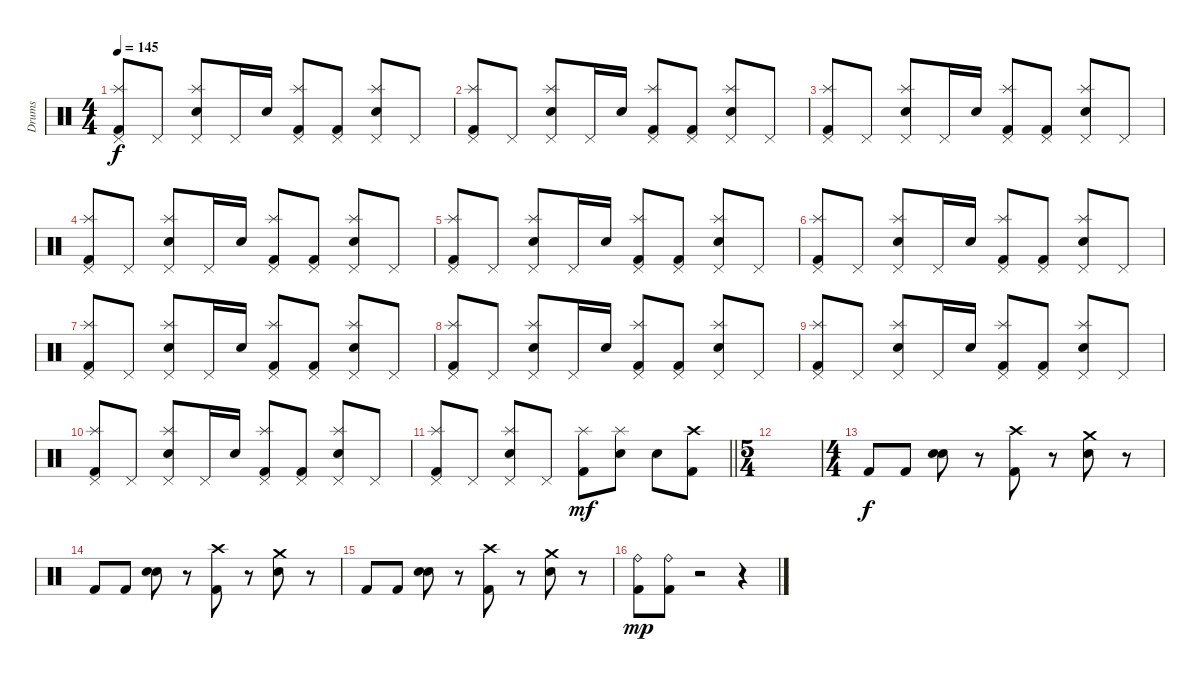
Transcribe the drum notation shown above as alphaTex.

\track ("Drums" "Drums") {instrument percussion}
\staff {score}
\articulation defaults
\ts (4 4)
\tempo 145
\clef neutral
\ks c
("Pedal Hi-Hat (hit)" "Splash (hit)" "Kick (hit) 2").8{dy f} "Pedal Hi-Hat (hit)".8 ("Pedal Hi-Hat (hit)" "Splash (hit)" "Electric Snare (hit)").8 "Pedal Hi-Hat (hit)".16 "Electric Snare (hit)".16 ("Pedal Hi-Hat (hit)" "Splash (hit)" "Kick (hit) 2").8 ("Pedal Hi-Hat (hit)" "Kick (hit) 2").8 ("Pedal Hi-Hat (hit)" "Splash (hit)" "Electric Snare (hit)").8 "Pedal Hi-Hat (hit)".8 |
("Pedal Hi-Hat (hit)" "Splash (hit)" "Kick (hit) 2").8 "Pedal Hi-Hat (hit)".8 ("Pedal Hi-Hat (hit)" "Splash (hit)" "Electric Snare (hit)").8 "Pedal Hi-Hat (hit)".16 "Electric Snare (hit)".16 ("Pedal Hi-Hat (hit)" "Splash (hit)" "Kick (hit) 2").8 ("Pedal Hi-Hat (hit)" "Kick (hit) 2").8 ("Pedal Hi-Hat (hit)" "Splash (hit)" "Electric Snare (hit)").8 "Pedal Hi-Hat (hit)".8 |
("Pedal Hi-Hat (hit)" "Splash (hit)" "Kick (hit) 2").8 "Pedal Hi-Hat (hit)".8 ("Pedal Hi-Hat (hit)" "Splash (hit)" "Electric Snare (hit)").8 "Pedal Hi-Hat (hit)".16 "Electric Snare (hit)".16 ("Pedal Hi-Hat (hit)" "Splash (hit)" "Kick (hit) 2").8 ("Pedal Hi-Hat (hit)" "Kick (hit) 2").8 ("Pedal Hi-Hat (hit)" "Splash (hit)" "Electric Snare (hit)").8 "Pedal Hi-Hat (hit)".8 |
("Pedal Hi-Hat (hit)" "Splash (hit)" "Kick (hit) 2").8 "Pedal Hi-Hat (hit)".8 ("Pedal Hi-Hat (hit)" "Splash (hit)" "Electric Snare (hit)").8 "Pedal Hi-Hat (hit)".16 "Electric Snare (hit)".16 ("Pedal Hi-Hat (hit)" "Splash (hit)" "Kick (hit) 2").8 ("Pedal Hi-Hat (hit)" "Kick (hit) 2").8 ("Pedal Hi-Hat (hit)" "Splash (hit)" "Electric Snare (hit)").8 "Pedal Hi-Hat (hit)".8 |
("Pedal Hi-Hat (hit)" "Splash (hit)" "Kick (hit) 2").8 "Pedal Hi-Hat (hit)".8 ("Pedal Hi-Hat (hit)" "Splash (hit)" "Electric Snare (hit)").8 "Pedal Hi-Hat (hit)".16 "Electric Snare (hit)".16 ("Pedal Hi-Hat (hit)" "Splash (hit)" "Kick (hit) 2").8 ("Pedal Hi-Hat (hit)" "Kick (hit) 2").8 ("Pedal Hi-Hat (hit)" "Splash (hit)" "Electric Snare (hit)").8 "Pedal Hi-Hat (hit)".8 |
("Pedal Hi-Hat (hit)" "Splash (hit)" "Kick (hit) 2").8 "Pedal Hi-Hat (hit)".8 ("Pedal Hi-Hat (hit)" "Splash (hit)" "Electric Snare (hit)").8 "Pedal Hi-Hat (hit)".16 "Electric Snare (hit)".16 ("Pedal Hi-Hat (hit)" "Splash (hit)" "Kick (hit) 2").8 ("Pedal Hi-Hat (hit)" "Kick (hit) 2").8 ("Pedal Hi-Hat (hit)" "Splash (hit)" "Electric Snare (hit)").8 "Pedal Hi-Hat (hit)".8 |
("Pedal Hi-Hat (hit)" "Splash (hit)" "Kick (hit) 2").8 "Pedal Hi-Hat (hit)".8 ("Pedal Hi-Hat (hit)" "Splash (hit)" "Electric Snare (hit)").8 "Pedal Hi-Hat (hit)".16 "Electric Snare (hit)".16 ("Pedal Hi-Hat (hit)" "Splash (hit)" "Kick (hit) 2").8 ("Pedal Hi-Hat (hit)" "Kick (hit) 2").8 ("Pedal Hi-Hat (hit)" "Splash (hit)" "Electric Snare (hit)").8 "Pedal Hi-Hat (hit)".8 |
("Pedal Hi-Hat (hit)" "Splash (hit)" "Kick (hit) 2").8 "Pedal Hi-Hat (hit)".8 ("Pedal Hi-Hat (hit)" "Splash (hit)" "Electric Snare (hit)").8 "Pedal Hi-Hat (hit)".16 "Electric Snare (hit)".16 ("Pedal Hi-Hat (hit)" "Splash (hit)" "Kick (hit) 2").8 ("Pedal Hi-Hat (hit)" "Kick (hit) 2").8 ("Pedal Hi-Hat (hit)" "Splash (hit)" "Electric Snare (hit)").8 "Pedal Hi-Hat (hit)".8 |
("Pedal Hi-Hat (hit)" "Splash (hit)" "Kick (hit) 2").8 "Pedal Hi-Hat (hit)".8 ("Pedal Hi-Hat (hit)" "Splash (hit)" "Electric Snare (hit)").8 "Pedal Hi-Hat (hit)".16 "Electric Snare (hit)".16 ("Pedal Hi-Hat (hit)" "Splash (hit)" "Kick (hit) 2").8 ("Pedal Hi-Hat (hit)" "Kick (hit) 2").8 ("Pedal Hi-Hat (hit)" "Splash (hit)" "Electric Snare (hit)").8 "Pedal Hi-Hat (hit)".8 |
("Pedal Hi-Hat (hit)" "Splash (hit)" "Kick (hit) 2").8 "Pedal Hi-Hat (hit)".8 ("Pedal Hi-Hat (hit)" "Splash (hit)" "Electric Snare (hit)").8 "Pedal Hi-Hat (hit)".16 "Electric Snare (hit)".16 ("Pedal Hi-Hat (hit)" "Splash (hit)" "Kick (hit) 2").8 ("Pedal Hi-Hat (hit)" "Kick (hit) 2").8 ("Pedal Hi-Hat (hit)" "Splash (hit)" "Electric Snare (hit)").8 "Pedal Hi-Hat (hit)".8 |
\barLineRight lightlight
("Pedal Hi-Hat (hit)" "Splash (hit)" "Kick (hit) 2").8 "Pedal Hi-Hat (hit)".8 ("Pedal Hi-Hat (hit)" "Splash (hit)" "Electric Snare (hit)").8 "Pedal Hi-Hat (hit)".8 ("Splash (hit)" "Kick (hit) 2").8{dy mf} ("Splash (hit)" "Electric Snare (hit)").8 "Electric Snare (hit)".8 ("Crash high (hit)" "Kick (hit) 2").8 |
\ts (5 4)
|
\ts (4 4)
"Kick (hit) 2".8{dy f} "Kick (hit) 2".8 ("Electric Snare (hit)" "Electric Snare (hit)").8{bd 60} r.8 ("Crash high (hit)" "Kick (hit) 2").8 r.8 ("Crash medium (hit)" "Electric Snare (hit)").8 r.8 |
"Kick (hit) 2".8 "Kick (hit) 2".8 ("Electric Snare (hit)" "Electric Snare (hit)").8{bd 60} r.8 ("Crash high (hit)" "Kick (hit) 2").8 r.8 ("Crash medium (hit)" "Electric Snare (hit)").8 r.8 |
"Kick (hit) 2".8 "Kick (hit) 2".8 ("Electric Snare (hit)" "Electric Snare (hit)").8{bd 60} r.8 ("Crash high (hit)" "Kick (hit) 2").8 r.8 ("Crash medium (hit)" "Electric Snare (hit)").8 r.8 |
("Ride (bell)" "Kick (hit) 2").8{dy mp} ("Ride (bell)" "Kick (hit) 2").8 r.2 r.4
